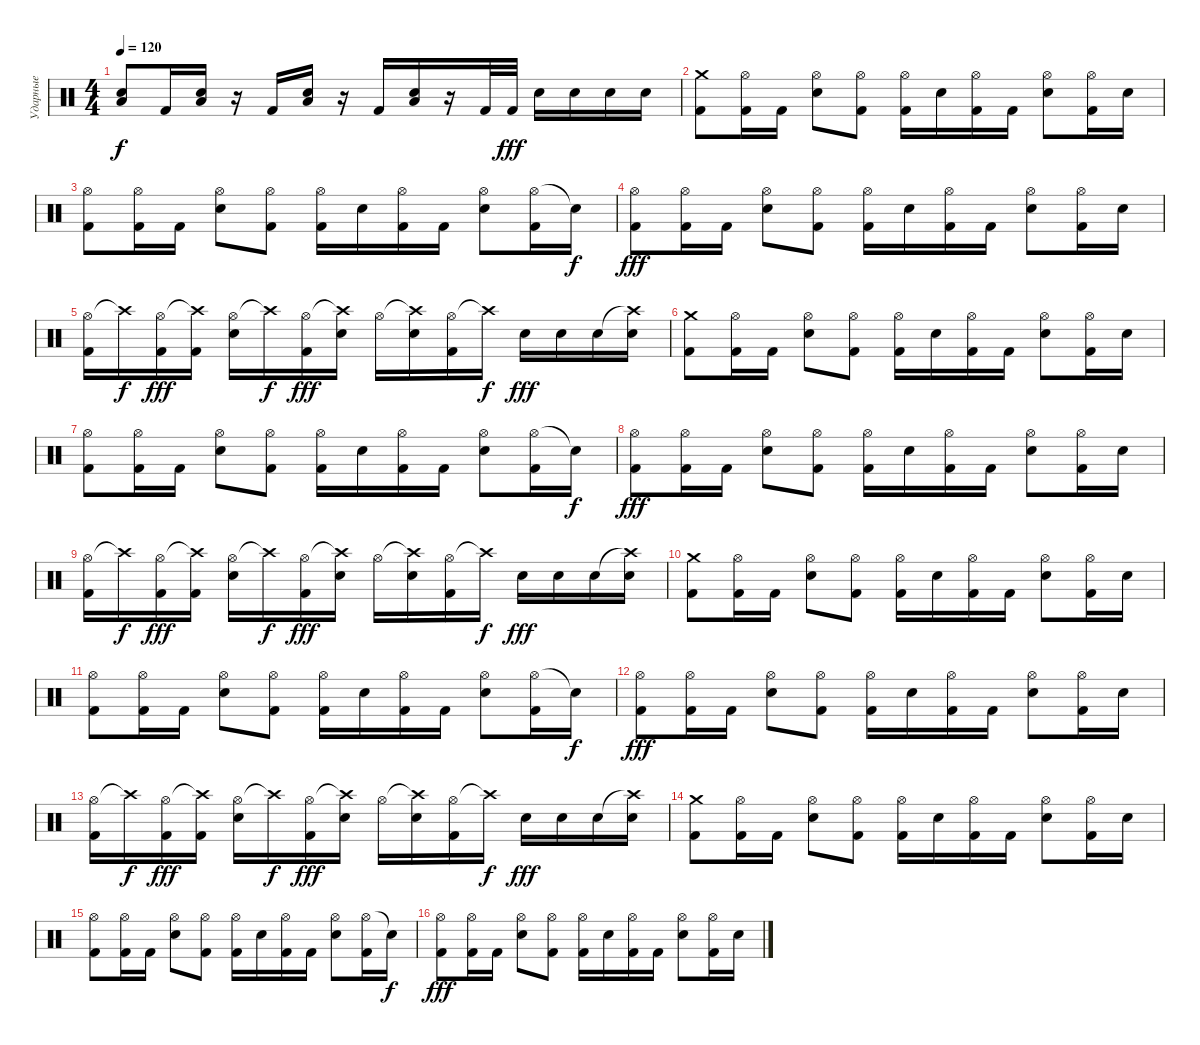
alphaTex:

\track ("Ударные" "Ударные") {instrument percussion}
\staff {score}
\articulation defaults
\ts (4 4)
\tempo 120
\clef neutral
\ks c
("Low Tom (hit)" "Electric Snare (hit)").8{dy f} "Kick (hit) 2".16 ("Low Tom (hit)" "Electric Snare (hit)").16 r.16 "Kick (hit) 2".16 ("Low Tom (hit)" "Electric Snare (hit)").16 r.16 "Kick (hit) 2".16 ("Low Tom (hit)" "Electric Snare (hit)").16 r.16 "Kick (hit) 2".32 "Kick (hit) 2".32{dy fff} "Electric Snare (hit)".16 "Electric Snare (hit)".16 "Electric Snare (hit)".16 "Electric Snare (hit)".16 |
("Crash medium (hit)" "Kick (hit) 2").8 ("Hi-Hat (open)" "Kick (hit) 2").16 "Kick (hit) 2".16 ("Hi-Hat (open)" "Electric Snare (hit)").8 ("Hi-Hat (open)" "Kick (hit) 2").8 ("Hi-Hat (open)" "Kick (hit) 2").16 "Electric Snare (hit)".16 ("Hi-Hat (open)" "Kick (hit) 2").16 "Kick (hit) 2".16 ("Hi-Hat (open)" "Electric Snare (hit)").8 ("Hi-Hat (open)" "Kick (hit) 2").16 "Electric Snare (hit)".16 |
("Hi-Hat (open)" "Kick (hit) 2").8 ("Hi-Hat (open)" "Kick (hit) 2").16 "Kick (hit) 2".16 ("Hi-Hat (open)" "Electric Snare (hit)").8 ("Hi-Hat (open)" "Kick (hit) 2").8 ("Hi-Hat (open)" "Kick (hit) 2").16 "Electric Snare (hit)".16 ("Hi-Hat (open)" "Kick (hit) 2").16 "Kick (hit) 2".16 ("Hi-Hat (open)" "Electric Snare (hit)").8 ("Hi-Hat (open)" "Kick (hit) 2").16 "Snare (hit)"{t}.16{dy f} |
("Hi-Hat (open)" "Kick (hit) 2").8{dy fff} ("Hi-Hat (open)" "Kick (hit) 2").16 "Kick (hit) 2".16 ("Hi-Hat (open)" "Electric Snare (hit)").8 ("Hi-Hat (open)" "Kick (hit) 2").8 ("Hi-Hat (open)" "Kick (hit) 2").16 "Electric Snare (hit)".16 ("Hi-Hat (open)" "Kick (hit) 2").16 "Kick (hit) 2".16 ("Hi-Hat (open)" "Electric Snare (hit)").8 ("Hi-Hat (open)" "Kick (hit) 2").16 "Electric Snare (hit)".16 |
("Hi-Hat (open)" "Kick (hit) 2").16 "Crash high (hit)"{t}.16{dy f} ("Hi-Hat (open)" "Kick (hit) 2").16{dy fff} ("Crash high (hit)"{t} "Kick (hit) 2").16 ("Hi-Hat (open)" "Electric Snare (hit)").16 "Crash high (hit)"{t}.16{dy f} ("Hi-Hat (open)" "Kick (hit) 2").16{dy fff} ("Crash high (hit)"{t} "Electric Snare (hit)").16 "Hi-Hat (open)".16 ("Crash high (hit)"{t} "Electric Snare (hit)").16 ("Hi-Hat (open)" "Kick (hit) 2").16 "Crash high (hit)"{t}.16{dy f} "Electric Snare (hit)".16{dy fff} "Electric Snare (hit)".16 "Electric Snare (hit)".16 ("Crash high (hit)"{t} "Electric Snare (hit)").16 |
("Crash medium (hit)" "Kick (hit) 2").8 ("Hi-Hat (open)" "Kick (hit) 2").16 "Kick (hit) 2".16 ("Hi-Hat (open)" "Electric Snare (hit)").8 ("Hi-Hat (open)" "Kick (hit) 2").8 ("Hi-Hat (open)" "Kick (hit) 2").16 "Electric Snare (hit)".16 ("Hi-Hat (open)" "Kick (hit) 2").16 "Kick (hit) 2".16 ("Hi-Hat (open)" "Electric Snare (hit)").8 ("Hi-Hat (open)" "Kick (hit) 2").16 "Electric Snare (hit)".16 |
("Hi-Hat (open)" "Kick (hit) 2").8 ("Hi-Hat (open)" "Kick (hit) 2").16 "Kick (hit) 2".16 ("Hi-Hat (open)" "Electric Snare (hit)").8 ("Hi-Hat (open)" "Kick (hit) 2").8 ("Hi-Hat (open)" "Kick (hit) 2").16 "Electric Snare (hit)".16 ("Hi-Hat (open)" "Kick (hit) 2").16 "Kick (hit) 2".16 ("Hi-Hat (open)" "Electric Snare (hit)").8 ("Hi-Hat (open)" "Kick (hit) 2").16 "Snare (hit)"{t}.16{dy f} |
("Hi-Hat (open)" "Kick (hit) 2").8{dy fff} ("Hi-Hat (open)" "Kick (hit) 2").16 "Kick (hit) 2".16 ("Hi-Hat (open)" "Electric Snare (hit)").8 ("Hi-Hat (open)" "Kick (hit) 2").8 ("Hi-Hat (open)" "Kick (hit) 2").16 "Electric Snare (hit)".16 ("Hi-Hat (open)" "Kick (hit) 2").16 "Kick (hit) 2".16 ("Hi-Hat (open)" "Electric Snare (hit)").8 ("Hi-Hat (open)" "Kick (hit) 2").16 "Electric Snare (hit)".16 |
("Hi-Hat (open)" "Kick (hit) 2").16 "Crash high (hit)"{t}.16{dy f} ("Hi-Hat (open)" "Kick (hit) 2").16{dy fff} ("Crash high (hit)"{t} "Kick (hit) 2").16 ("Hi-Hat (open)" "Electric Snare (hit)").16 "Crash high (hit)"{t}.16{dy f} ("Hi-Hat (open)" "Kick (hit) 2").16{dy fff} ("Crash high (hit)"{t} "Electric Snare (hit)").16 "Hi-Hat (open)".16 ("Crash high (hit)"{t} "Electric Snare (hit)").16 ("Hi-Hat (open)" "Kick (hit) 2").16 "Crash high (hit)"{t}.16{dy f} "Electric Snare (hit)".16{dy fff} "Electric Snare (hit)".16 "Electric Snare (hit)".16 ("Crash high (hit)"{t} "Electric Snare (hit)").16 |
("Crash medium (hit)" "Kick (hit) 2").8 ("Hi-Hat (open)" "Kick (hit) 2").16 "Kick (hit) 2".16 ("Hi-Hat (open)" "Electric Snare (hit)").8 ("Hi-Hat (open)" "Kick (hit) 2").8 ("Hi-Hat (open)" "Kick (hit) 2").16 "Electric Snare (hit)".16 ("Hi-Hat (open)" "Kick (hit) 2").16 "Kick (hit) 2".16 ("Hi-Hat (open)" "Electric Snare (hit)").8 ("Hi-Hat (open)" "Kick (hit) 2").16 "Electric Snare (hit)".16 |
("Hi-Hat (open)" "Kick (hit) 2").8 ("Hi-Hat (open)" "Kick (hit) 2").16 "Kick (hit) 2".16 ("Hi-Hat (open)" "Electric Snare (hit)").8 ("Hi-Hat (open)" "Kick (hit) 2").8 ("Hi-Hat (open)" "Kick (hit) 2").16 "Electric Snare (hit)".16 ("Hi-Hat (open)" "Kick (hit) 2").16 "Kick (hit) 2".16 ("Hi-Hat (open)" "Electric Snare (hit)").8 ("Hi-Hat (open)" "Kick (hit) 2").16 "Snare (hit)"{t}.16{dy f} |
("Hi-Hat (open)" "Kick (hit) 2").8{dy fff} ("Hi-Hat (open)" "Kick (hit) 2").16 "Kick (hit) 2".16 ("Hi-Hat (open)" "Electric Snare (hit)").8 ("Hi-Hat (open)" "Kick (hit) 2").8 ("Hi-Hat (open)" "Kick (hit) 2").16 "Electric Snare (hit)".16 ("Hi-Hat (open)" "Kick (hit) 2").16 "Kick (hit) 2".16 ("Hi-Hat (open)" "Electric Snare (hit)").8 ("Hi-Hat (open)" "Kick (hit) 2").16 "Electric Snare (hit)".16 |
("Hi-Hat (open)" "Kick (hit) 2").16 "Crash high (hit)"{t}.16{dy f} ("Hi-Hat (open)" "Kick (hit) 2").16{dy fff} ("Crash high (hit)"{t} "Kick (hit) 2").16 ("Hi-Hat (open)" "Electric Snare (hit)").16 "Crash high (hit)"{t}.16{dy f} ("Hi-Hat (open)" "Kick (hit) 2").16{dy fff} ("Crash high (hit)"{t} "Electric Snare (hit)").16 "Hi-Hat (open)".16 ("Crash high (hit)"{t} "Electric Snare (hit)").16 ("Hi-Hat (open)" "Kick (hit) 2").16 "Crash high (hit)"{t}.16{dy f} "Electric Snare (hit)".16{dy fff} "Electric Snare (hit)".16 "Electric Snare (hit)".16 ("Crash high (hit)"{t} "Electric Snare (hit)").16 |
("Crash medium (hit)" "Kick (hit) 2").8 ("Hi-Hat (open)" "Kick (hit) 2").16 "Kick (hit) 2".16 ("Hi-Hat (open)" "Electric Snare (hit)").8 ("Hi-Hat (open)" "Kick (hit) 2").8 ("Hi-Hat (open)" "Kick (hit) 2").16 "Electric Snare (hit)".16 ("Hi-Hat (open)" "Kick (hit) 2").16 "Kick (hit) 2".16 ("Hi-Hat (open)" "Electric Snare (hit)").8 ("Hi-Hat (open)" "Kick (hit) 2").16 "Electric Snare (hit)".16 |
("Hi-Hat (open)" "Kick (hit) 2").8 ("Hi-Hat (open)" "Kick (hit) 2").16 "Kick (hit) 2".16 ("Hi-Hat (open)" "Electric Snare (hit)").8 ("Hi-Hat (open)" "Kick (hit) 2").8 ("Hi-Hat (open)" "Kick (hit) 2").16 "Electric Snare (hit)".16 ("Hi-Hat (open)" "Kick (hit) 2").16 "Kick (hit) 2".16 ("Hi-Hat (open)" "Electric Snare (hit)").8 ("Hi-Hat (open)" "Kick (hit) 2").16 "Snare (hit)"{t}.16{dy f} |
("Hi-Hat (open)" "Kick (hit) 2").8{dy fff} ("Hi-Hat (open)" "Kick (hit) 2").16 "Kick (hit) 2".16 ("Hi-Hat (open)" "Electric Snare (hit)").8 ("Hi-Hat (open)" "Kick (hit) 2").8 ("Hi-Hat (open)" "Kick (hit) 2").16 "Electric Snare (hit)".16 ("Hi-Hat (open)" "Kick (hit) 2").16 "Kick (hit) 2".16 ("Hi-Hat (open)" "Electric Snare (hit)").8 ("Hi-Hat (open)" "Kick (hit) 2").16 "Electric Snare (hit)".16
